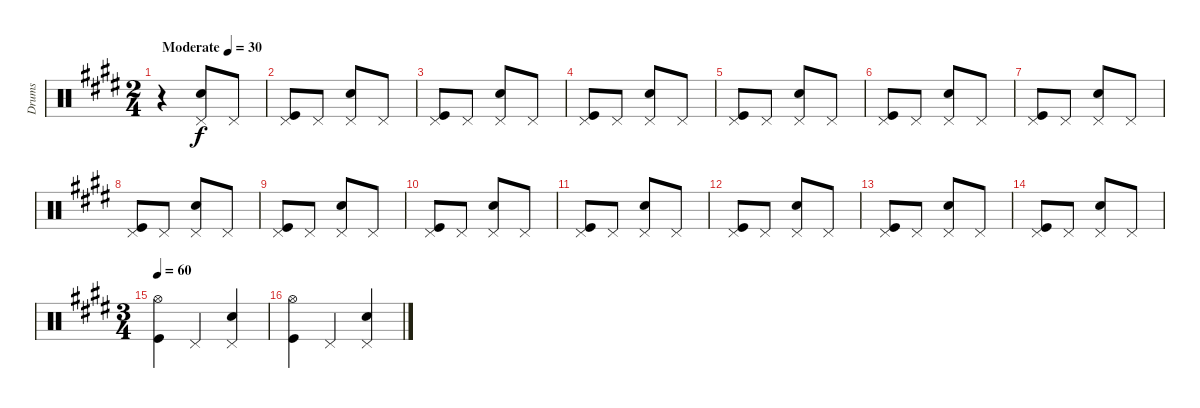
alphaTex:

\track ("Drums" "Drums") {instrument percussion}
\staff {score}
\articulation defaults
\ts (2 4)
\tempo (30 "Moderate")
\clef neutral
\ks c#minor
r.4{dy f} ("Pedal Hi-Hat (hit)" "Snare (hit) 2").8 "Pedal Hi-Hat (hit)".8 |
("Pedal Hi-Hat (hit)" "Kick (hit)").8 "Pedal Hi-Hat (hit)".8 ("Pedal Hi-Hat (hit)" "Snare (hit) 2").8 "Pedal Hi-Hat (hit)".8 |
("Pedal Hi-Hat (hit)" "Kick (hit)").8 "Pedal Hi-Hat (hit)".8 ("Pedal Hi-Hat (hit)" "Snare (hit) 2").8 "Pedal Hi-Hat (hit)".8 |
("Pedal Hi-Hat (hit)" "Kick (hit)").8 "Pedal Hi-Hat (hit)".8 ("Pedal Hi-Hat (hit)" "Snare (hit) 2").8 "Pedal Hi-Hat (hit)".8 |
("Pedal Hi-Hat (hit)" "Kick (hit)").8 "Pedal Hi-Hat (hit)".8 ("Pedal Hi-Hat (hit)" "Snare (hit) 2").8 "Pedal Hi-Hat (hit)".8 |
("Pedal Hi-Hat (hit)" "Kick (hit)").8 "Pedal Hi-Hat (hit)".8 ("Pedal Hi-Hat (hit)" "Snare (hit) 2").8 "Pedal Hi-Hat (hit)".8 |
("Pedal Hi-Hat (hit)" "Kick (hit)").8 "Pedal Hi-Hat (hit)".8 ("Pedal Hi-Hat (hit)" "Snare (hit) 2").8 "Pedal Hi-Hat (hit)".8 |
("Pedal Hi-Hat (hit)" "Kick (hit)").8 "Pedal Hi-Hat (hit)".8 ("Pedal Hi-Hat (hit)" "Snare (hit) 2").8 "Pedal Hi-Hat (hit)".8 |
("Pedal Hi-Hat (hit)" "Kick (hit)").8 "Pedal Hi-Hat (hit)".8 ("Pedal Hi-Hat (hit)" "Snare (hit) 2").8 "Pedal Hi-Hat (hit)".8 |
("Pedal Hi-Hat (hit)" "Kick (hit)").8 "Pedal Hi-Hat (hit)".8 ("Pedal Hi-Hat (hit)" "Snare (hit) 2").8 "Pedal Hi-Hat (hit)".8 |
("Pedal Hi-Hat (hit)" "Kick (hit)").8 "Pedal Hi-Hat (hit)".8 ("Pedal Hi-Hat (hit)" "Snare (hit) 2").8 "Pedal Hi-Hat (hit)".8 |
("Pedal Hi-Hat (hit)" "Kick (hit)").8 "Pedal Hi-Hat (hit)".8 ("Pedal Hi-Hat (hit)" "Snare (hit) 2").8 "Pedal Hi-Hat (hit)".8 |
("Pedal Hi-Hat (hit)" "Kick (hit)").8 "Pedal Hi-Hat (hit)".8 ("Pedal Hi-Hat (hit)" "Snare (hit) 2").8 "Pedal Hi-Hat (hit)".8 |
("Pedal Hi-Hat (hit)" "Kick (hit)").8 "Pedal Hi-Hat (hit)".8 ("Pedal Hi-Hat (hit)" "Snare (hit) 2").8 "Pedal Hi-Hat (hit)".8 |
\ts (3 4)
\tempo 60
("Hi-Hat (open)" "Kick (hit)").4 "Pedal Hi-Hat (hit)".4 ("Pedal Hi-Hat (hit)" "Snare (hit) 2").4 |
("Hi-Hat (open)" "Kick (hit)").4 "Pedal Hi-Hat (hit)".4 ("Pedal Hi-Hat (hit)" "Snare (hit) 2").4
